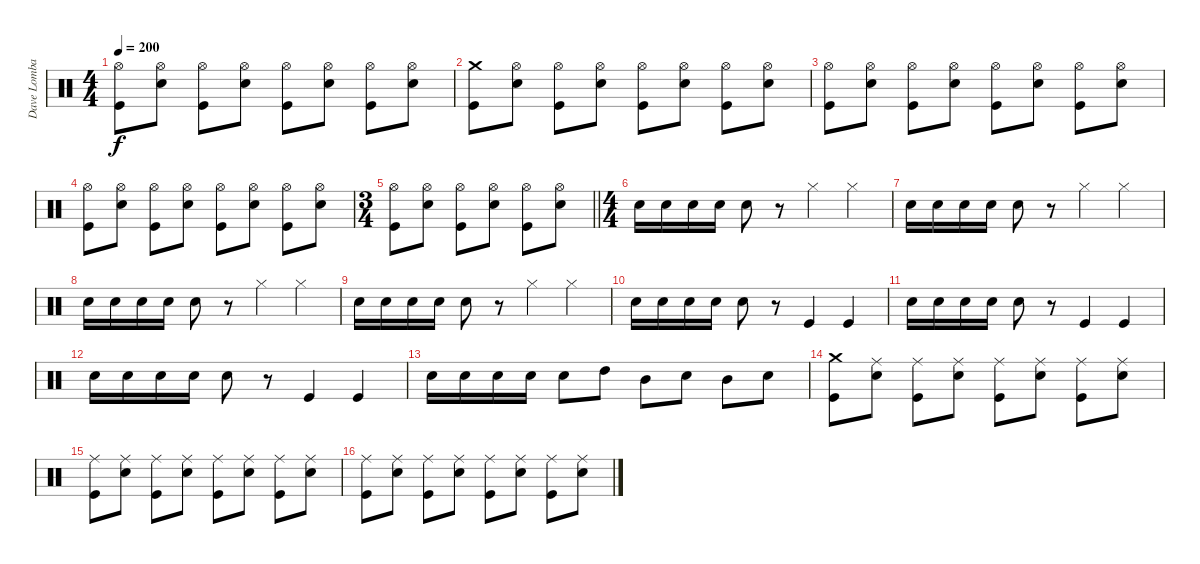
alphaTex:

\track ("Dave Lombardo" "Dave Lomba") {instrument percussion}
\staff {score}
\articulation defaults
\ts (4 4)
\tempo 200
\clef neutral
\ks c
("Hi-Hat (open)" "Kick (hit)").8{dy f} ("Hi-Hat (open)" "Snare (hit) 2").8 ("Hi-Hat (open)" "Kick (hit)").8 ("Hi-Hat (open)" "Snare (hit) 2").8 ("Hi-Hat (open)" "Kick (hit)").8 ("Hi-Hat (open)" "Snare (hit) 2").8 ("Hi-Hat (open)" "Kick (hit)").8 ("Hi-Hat (open)" "Snare (hit) 2").8 |
("Crash medium (hit)" "Kick (hit)").8 ("Hi-Hat (open)" "Snare (hit) 2").8 ("Hi-Hat (open)" "Kick (hit)").8 ("Hi-Hat (open)" "Snare (hit) 2").8 ("Hi-Hat (open)" "Kick (hit)").8 ("Hi-Hat (open)" "Snare (hit) 2").8 ("Hi-Hat (open)" "Kick (hit)").8 ("Hi-Hat (open)" "Snare (hit) 2").8 |
("Hi-Hat (open)" "Kick (hit)").8 ("Hi-Hat (open)" "Snare (hit) 2").8 ("Hi-Hat (open)" "Kick (hit)").8 ("Hi-Hat (open)" "Snare (hit) 2").8 ("Hi-Hat (open)" "Kick (hit)").8 ("Hi-Hat (open)" "Snare (hit) 2").8 ("Hi-Hat (open)" "Kick (hit)").8 ("Hi-Hat (open)" "Snare (hit) 2").8 |
("Hi-Hat (open)" "Kick (hit)").8 ("Hi-Hat (open)" "Snare (hit) 2").8 ("Hi-Hat (open)" "Kick (hit)").8 ("Hi-Hat (open)" "Snare (hit) 2").8 ("Hi-Hat (open)" "Kick (hit)").8 ("Hi-Hat (open)" "Snare (hit) 2").8 ("Hi-Hat (open)" "Kick (hit)").8 ("Hi-Hat (open)" "Snare (hit) 2").8 |
\ts (3 4)
\barLineRight lightlight
("Hi-Hat (open)" "Kick (hit)").8 ("Hi-Hat (open)" "Snare (hit) 2").8 ("Hi-Hat (open)" "Kick (hit)").8 ("Hi-Hat (open)" "Snare (hit) 2").8 ("Hi-Hat (open)" "Kick (hit)").8 ("Hi-Hat (open)" "Snare (hit) 2").8 |
\ts (4 4)
"Snare (hit) 2".16 "Snare (hit) 2".16 "Snare (hit) 2".16 "Snare (hit) 2".16 "Snare (hit) 2".8 r.8 "Hi-Hat (closed)".4 "Hi-Hat (closed)".4 |
"Snare (hit) 2".16 "Snare (hit) 2".16 "Snare (hit) 2".16 "Snare (hit) 2".16 "Snare (hit) 2".8 r.8 "Hi-Hat (closed)".4 "Hi-Hat (closed)".4 |
"Snare (hit) 2".16 "Snare (hit) 2".16 "Snare (hit) 2".16 "Snare (hit) 2".16 "Snare (hit) 2".8 r.8 "Hi-Hat (closed)".4 "Hi-Hat (closed)".4 |
"Snare (hit) 2".16 "Snare (hit) 2".16 "Snare (hit) 2".16 "Snare (hit) 2".16 "Snare (hit) 2".8 r.8 "Hi-Hat (closed)".4 "Hi-Hat (closed)".4 |
"Snare (hit) 2".16 "Snare (hit) 2".16 "Snare (hit) 2".16 "Snare (hit) 2".16 "Snare (hit) 2".8 r.8 "Kick (hit)".4 "Kick (hit)".4 |
"Snare (hit) 2".16 "Snare (hit) 2".16 "Snare (hit) 2".16 "Snare (hit) 2".16 "Snare (hit) 2".8 r.8 "Kick (hit)".4 "Kick (hit)".4 |
"Snare (hit) 2".16 "Snare (hit) 2".16 "Snare (hit) 2".16 "Snare (hit) 2".16 "Snare (hit) 2".8 r.8 "Kick (hit)".4 "Kick (hit)".4 |
"Snare (hit) 2".16 "Snare (hit) 2".16 "Snare (hit) 2".16 "Snare (hit) 2".16 "Snare (hit) 2".8 "High Tom (hit)".8 "Mid Tom (hit)".8 "Snare (hit) 2".8 "Mid Tom (hit)".8 "Snare (hit) 2".8 |
("Crash medium (hit)" "Kick (hit)").8 ("Ride (middle)" "Snare (hit) 2").8 ("Ride (middle)" "Kick (hit)").8 ("Ride (middle)" "Snare (hit) 2").8 ("Ride (middle)" "Kick (hit)").8 ("Ride (middle)" "Snare (hit) 2").8 ("Ride (middle)" "Kick (hit)").8 ("Ride (middle)" "Snare (hit) 2").8 |
("Ride (middle)" "Kick (hit)").8 ("Ride (middle)" "Snare (hit) 2").8 ("Ride (middle)" "Kick (hit)").8 ("Ride (middle)" "Snare (hit) 2").8 ("Ride (middle)" "Kick (hit)").8 ("Ride (middle)" "Snare (hit) 2").8 ("Ride (middle)" "Kick (hit)").8 ("Ride (middle)" "Snare (hit) 2").8 |
("Ride (middle)" "Kick (hit)").8 ("Ride (middle)" "Snare (hit) 2").8 ("Ride (middle)" "Kick (hit)").8 ("Ride (middle)" "Snare (hit) 2").8 ("Ride (middle)" "Kick (hit)").8 ("Ride (middle)" "Snare (hit) 2").8 ("Ride (middle)" "Kick (hit)").8 ("Ride (middle)" "Snare (hit) 2").8
